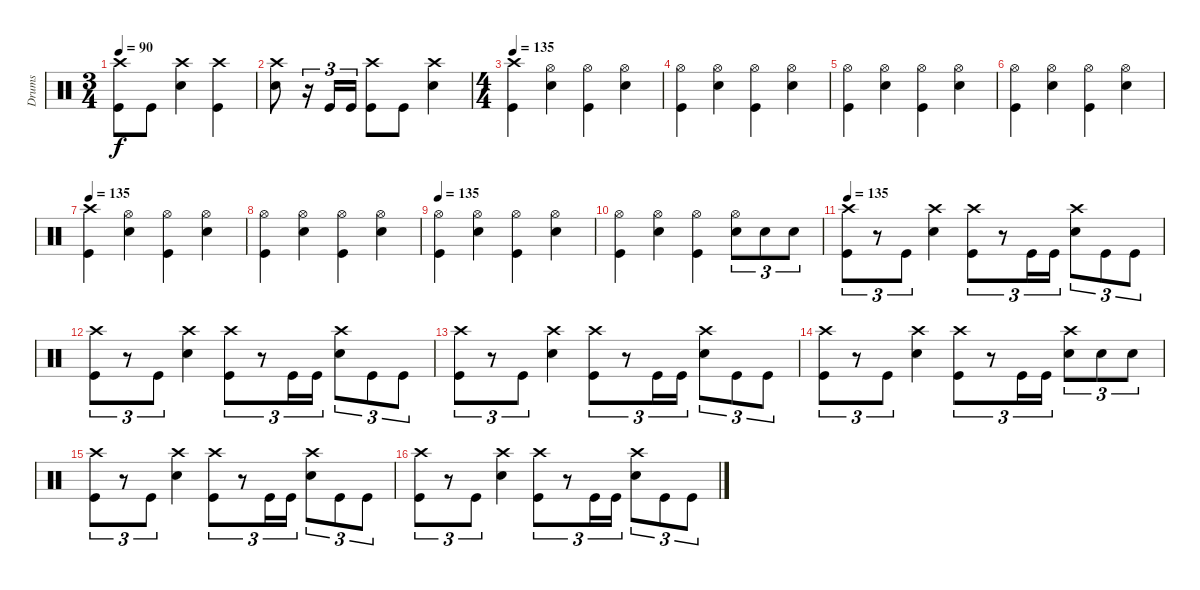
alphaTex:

\track ("Drums" "Drums") {instrument percussion}
\staff {score}
\articulation defaults
\ts (3 4)
\tempo 90
\clef neutral
\ks c
("Kick (hit)" "Crash high (hit)").8{dy f} "Kick (hit)".8 ("Snare (hit) 2" "Crash high (hit)").4 ("Kick (hit)" "Crash high (hit)").4 |
("Snare (hit) 2" "Crash high (hit)").8 r.16{tu (3 2)} "Kick (hit)".16{tu (3 2)} "Kick (hit)".16{tu (3 2)} ("Kick (hit)" "Crash high (hit)").8 "Kick (hit)".8 ("Snare (hit) 2" "Crash high (hit)").4 |
\ts (4 4)
\tempo 135
("Kick (hit)" "Crash high (hit)").4 ("Snare (hit) 2" "Hi-Hat (open)").4 ("Kick (hit)" "Hi-Hat (open)").4 ("Snare (hit) 2" "Hi-Hat (open)").4 |
("Kick (hit)" "Hi-Hat (open)").4 ("Snare (hit) 2" "Hi-Hat (open)").4 ("Kick (hit)" "Hi-Hat (open)").4 ("Snare (hit) 2" "Hi-Hat (open)").4 |
("Kick (hit)" "Hi-Hat (open)").4 ("Snare (hit) 2" "Hi-Hat (open)").4 ("Kick (hit)" "Hi-Hat (open)").4 ("Snare (hit) 2" "Hi-Hat (open)").4 |
("Kick (hit)" "Hi-Hat (open)").4 ("Snare (hit) 2" "Hi-Hat (open)").4 ("Kick (hit)" "Hi-Hat (open)").4 ("Snare (hit) 2" "Hi-Hat (open)").4 |
\tempo 135
("Kick (hit)" "Crash high (hit)").4 ("Snare (hit) 2" "Hi-Hat (open)").4 ("Kick (hit)" "Hi-Hat (open)").4 ("Snare (hit) 2" "Hi-Hat (open)").4 |
("Kick (hit)" "Hi-Hat (open)").4 ("Snare (hit) 2" "Hi-Hat (open)").4 ("Kick (hit)" "Hi-Hat (open)").4 ("Snare (hit) 2" "Hi-Hat (open)").4 |
\tempo 135
("Kick (hit)" "Hi-Hat (open)").4 ("Snare (hit) 2" "Hi-Hat (open)").4 ("Kick (hit)" "Hi-Hat (open)").4 ("Snare (hit) 2" "Hi-Hat (open)").4 |
("Kick (hit)" "Hi-Hat (open)").4 ("Snare (hit) 2" "Hi-Hat (open)").4 ("Kick (hit)" "Hi-Hat (open)").4 ("Snare (hit) 2" "Hi-Hat (open)").8{tu (3 2)} "Snare (hit) 2".8{tu (3 2)} "Snare (hit) 2".8{tu (3 2)} |
\tempo 135
("Kick (hit)" "Crash high (hit)").8{tu (3 2)} r.8{tu (3 2)} "Kick (hit)".8{tu (3 2)} ("Snare (hit) 2" "Crash high (hit)").4 ("Kick (hit)" "Crash high (hit)").8{tu (3 2)} r.8{tu (3 2)} "Kick (hit)".16{tu (3 2)} "Kick (hit)".16{tu (3 2)} ("Snare (hit) 2" "Crash high (hit)").8{tu (3 2)} "Kick (hit)".8{tu (3 2)} "Kick (hit)".8{tu (3 2)} |
("Kick (hit)" "Crash high (hit)").8{tu (3 2)} r.8{tu (3 2)} "Kick (hit)".8{tu (3 2)} ("Snare (hit) 2" "Crash high (hit)").4 ("Kick (hit)" "Crash high (hit)").8{tu (3 2)} r.8{tu (3 2)} "Kick (hit)".16{tu (3 2)} "Kick (hit)".16{tu (3 2)} ("Snare (hit) 2" "Crash high (hit)").8{tu (3 2)} "Kick (hit)".8{tu (3 2)} "Kick (hit)".8{tu (3 2)} |
("Kick (hit)" "Crash high (hit)").8{tu (3 2)} r.8{tu (3 2)} "Kick (hit)".8{tu (3 2)} ("Snare (hit) 2" "Crash high (hit)").4 ("Kick (hit)" "Crash high (hit)").8{tu (3 2)} r.8{tu (3 2)} "Kick (hit)".16{tu (3 2)} "Kick (hit)".16{tu (3 2)} ("Snare (hit) 2" "Crash high (hit)").8{tu (3 2)} "Kick (hit)".8{tu (3 2)} "Kick (hit)".8{tu (3 2)} |
("Kick (hit)" "Crash high (hit)").8{tu (3 2)} r.8{tu (3 2)} "Kick (hit)".8{tu (3 2)} ("Snare (hit) 2" "Crash high (hit)").4 ("Kick (hit)" "Crash high (hit)").8{tu (3 2)} r.8{tu (3 2)} "Kick (hit)".16{tu (3 2)} "Kick (hit)".16{tu (3 2)} ("Snare (hit) 2" "Crash high (hit)").8{tu (3 2)} "Snare (hit) 2".8{tu (3 2)} "Snare (hit) 2".8{tu (3 2)} |
("Kick (hit)" "Crash high (hit)").8{tu (3 2)} r.8{tu (3 2)} "Kick (hit)".8{tu (3 2)} ("Snare (hit) 2" "Crash high (hit)").4 ("Kick (hit)" "Crash high (hit)").8{tu (3 2)} r.8{tu (3 2)} "Kick (hit)".16{tu (3 2)} "Kick (hit)".16{tu (3 2)} ("Snare (hit) 2" "Crash high (hit)").8{tu (3 2)} "Kick (hit)".8{tu (3 2)} "Kick (hit)".8{tu (3 2)} |
("Kick (hit)" "Crash high (hit)").8{tu (3 2)} r.8{tu (3 2)} "Kick (hit)".8{tu (3 2)} ("Snare (hit) 2" "Crash high (hit)").4 ("Kick (hit)" "Crash high (hit)").8{tu (3 2)} r.8{tu (3 2)} "Kick (hit)".16{tu (3 2)} "Kick (hit)".16{tu (3 2)} ("Snare (hit) 2" "Crash high (hit)").8{tu (3 2)} "Kick (hit)".8{tu (3 2)} "Kick (hit)".8{tu (3 2)}
